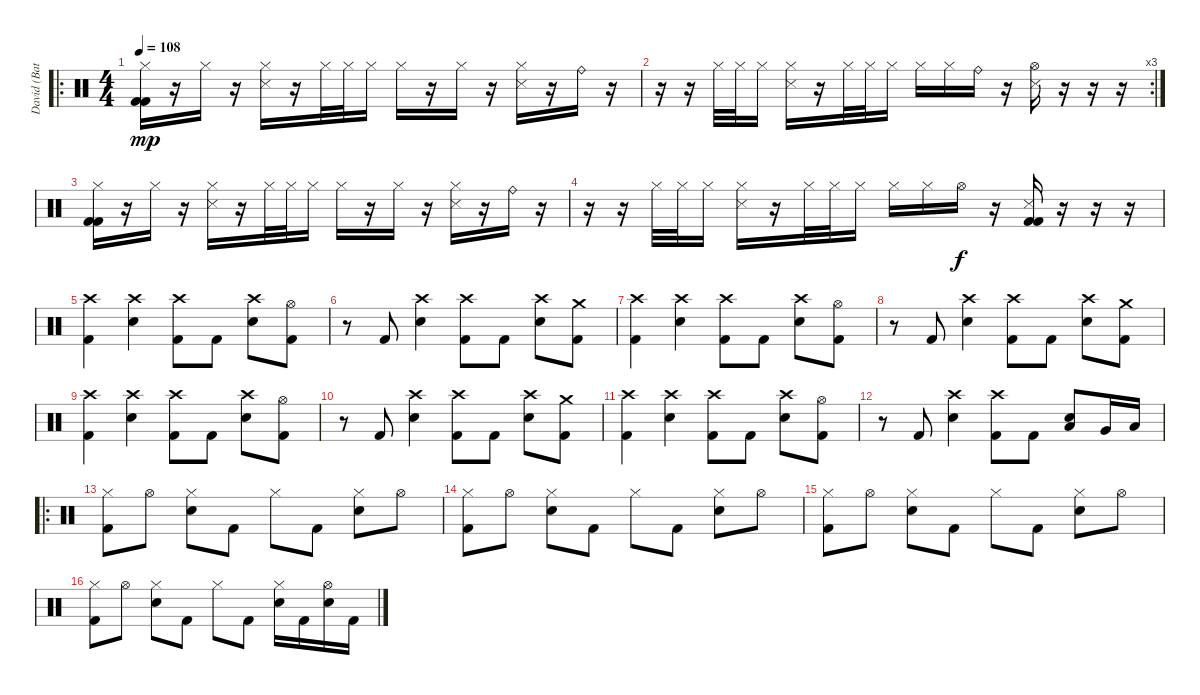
\track ("David (Batterie)" "David (Bat") {instrument percussion}
\staff {score}
\articulation defaults
\ro
\ts (4 4)
\tempo 108
\clef neutral
\ks c
("Hi-Hat (closed)" "Kick (hit) 2" "Kick (hit) 2").16{dy mp volume 7} r.16 "Hi-Hat (closed)".16 r.16 ("Hi-Hat (closed)" "Snare (side stick) 3").16 r.16 "Hi-Hat (closed)".32 "Hi-Hat (closed)".32 "Hi-Hat (closed)".16 "Hi-Hat (closed)".16 r.16 "Hi-Hat (closed)".16 r.16 ("Hi-Hat (closed)" "Snare (side stick) 3").16 r.16 "Ride (bell)".16 r.16 |
\rc 3
r.16{volume 7} r.16 "Hi-Hat (closed)".32 "Hi-Hat (closed)".32 "Hi-Hat (closed)".16 ("Hi-Hat (closed)" "Snare (side stick) 3").16 r.16 "Hi-Hat (closed)".32 "Hi-Hat (closed)".32 "Hi-Hat (closed)".16 "Hi-Hat (closed)".16 "Hi-Hat (closed)".16 "Ride (bell)".16 r.16 ("Hi-Hat (open)" "Snare (side stick) 3").16 r.16 r.16 r.16 |
("Hi-Hat (closed)" "Kick (hit) 2" "Kick (hit) 2").16{volume 7} r.16 "Hi-Hat (closed)".16 r.16 ("Hi-Hat (closed)" "Snare (side stick) 3").16 r.16 "Hi-Hat (closed)".32 "Hi-Hat (closed)".32 "Hi-Hat (closed)".16 "Hi-Hat (closed)".16 r.16 "Hi-Hat (closed)".16 r.16 ("Hi-Hat (closed)" "Snare (side stick) 3").16 r.16 "Ride (bell)".16 r.16 |
r.16{volume 7} r.16 "Hi-Hat (closed)".32 "Hi-Hat (closed)".32 "Hi-Hat (closed)".16 ("Hi-Hat (closed)" "Snare (side stick) 3").16 r.16 "Hi-Hat (closed)".32 "Hi-Hat (closed)".32 "Hi-Hat (closed)".16 "Hi-Hat (closed)".16 "Hi-Hat (closed)".16 "Hi-Hat (open)".16{dy f} r.16 ("Snare (side stick) 3" "Kick (hit) 2" "Kick (hit) 2").16{volume 13} r.16 r.16 r.16 |
("Crash high (hit)" "Kick (hit) 2").4 ("Crash high (hit)" "Electric Snare (hit)").4 ("Crash high (hit)" "Kick (hit) 2").8 "Kick (hit) 2".8 ("Crash high (hit)" "Electric Snare (hit)").8 ("Hi-Hat (open)" "Kick (hit) 2").8 |
r.8 "Kick (hit) 2".8 ("Crash high (hit)" "Electric Snare (hit)").4 ("Crash high (hit)" "Kick (hit) 2").8 "Kick (hit) 2".8 ("Crash high (hit)" "Electric Snare (hit)").8 ("Crash medium (hit)" "Kick (hit) 2").8 |
("Crash high (hit)" "Kick (hit) 2").4 ("Crash high (hit)" "Electric Snare (hit)").4 ("Crash high (hit)" "Kick (hit) 2").8 "Kick (hit) 2".8 ("Crash high (hit)" "Electric Snare (hit)").8 ("Hi-Hat (open)" "Kick (hit) 2").8 |
r.8 "Kick (hit) 2".8 ("Crash high (hit)" "Electric Snare (hit)").4 ("Crash high (hit)" "Kick (hit) 2").8 "Kick (hit) 2".8 ("Crash high (hit)" "Electric Snare (hit)").8 ("Crash medium (hit)" "Kick (hit) 2").8 |
("Crash high (hit)" "Kick (hit) 2").4 ("Crash high (hit)" "Electric Snare (hit)").4 ("Crash high (hit)" "Kick (hit) 2").8 "Kick (hit) 2".8 ("Crash high (hit)" "Electric Snare (hit)").8 ("Hi-Hat (open)" "Kick (hit) 2").8 |
r.8 "Kick (hit) 2".8 ("Crash high (hit)" "Electric Snare (hit)").4 ("Crash high (hit)" "Kick (hit) 2").8 "Kick (hit) 2".8 ("Crash high (hit)" "Electric Snare (hit)").8 ("Crash medium (hit)" "Kick (hit) 2").8 |
("Crash high (hit)" "Kick (hit) 2").4 ("Crash high (hit)" "Electric Snare (hit)").4 ("Crash high (hit)" "Kick (hit) 2").8 "Kick (hit) 2".8 ("Crash high (hit)" "Electric Snare (hit)").8 ("Hi-Hat (open)" "Kick (hit) 2").8 |
r.8 "Kick (hit) 2".8 ("Crash high (hit)" "Electric Snare (hit)").4 ("Crash high (hit)" "Kick (hit) 2").8 "Kick (hit) 2".8 ("Low Tom (hit)" "Electric Snare (hit)").8 "Very Low Tom (hit)".16 "Low Floor Tom (hit)".16 |
\ro
("Hi-Hat (closed)" "Kick (hit) 2").8 "Hi-Hat (open)".8 ("Hi-Hat (closed)" "Electric Snare (hit)").8 "Kick (hit) 2".8 "Hi-Hat (closed)".8 "Kick (hit) 2".8 ("Hi-Hat (closed)" "Electric Snare (hit)").8 "Hi-Hat (open)".8 |
("Hi-Hat (closed)" "Kick (hit) 2").8 "Hi-Hat (open)".8 ("Hi-Hat (closed)" "Electric Snare (hit)").8 "Kick (hit) 2".8 "Hi-Hat (closed)".8 "Kick (hit) 2".8 ("Hi-Hat (closed)" "Electric Snare (hit)").8 "Hi-Hat (open)".8 |
("Hi-Hat (closed)" "Kick (hit) 2").8 "Hi-Hat (open)".8 ("Hi-Hat (closed)" "Electric Snare (hit)").8 "Kick (hit) 2".8 "Hi-Hat (closed)".8 "Kick (hit) 2".8 ("Hi-Hat (closed)" "Electric Snare (hit)").8 "Hi-Hat (open)".8 |
("Hi-Hat (closed)" "Kick (hit) 2").8 "Hi-Hat (open)".8 ("Hi-Hat (closed)" "Electric Snare (hit)").8 "Kick (hit) 2".8 "Hi-Hat (closed)".8 "Kick (hit) 2".8 ("Hi-Hat (closed)" "Electric Snare (hit)").16 "Kick (hit) 2".16 ("Hi-Hat (open)" "Electric Snare (hit)").16 "Kick (hit) 2".16
